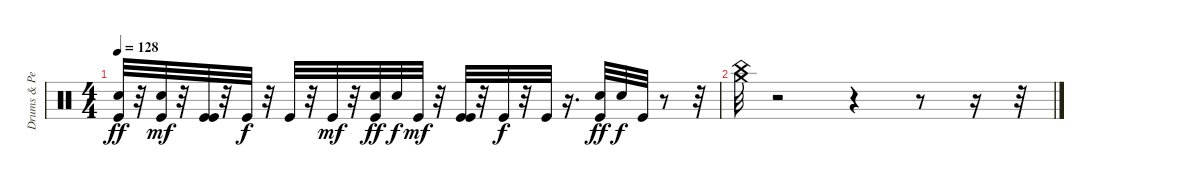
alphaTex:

\track ("Drums & Percussion" "Drums & Pe") {instrument percussion}
\staff {score}
\articulation defaults
\ts (4 4)
\tempo 128
\clef neutral
\ks c
("Electric Snare (hit)" "Kick (hit)").32{dy ff} r.32 ("Electric Snare (hit)" "Kick (hit)").32{dy mf} r.32 ("Kick (hit)" "Kick (hit)").32 r.32 "Kick (hit)".32{dy f} r.32 "Kick (hit)".32 r.32 "Kick (hit)".32{dy mf} r.32 ("Electric Snare (hit)" "Kick (hit)").32{dy ff} "Electric Snare (hit)".32{dy f} "Kick (hit)".32{dy mf} r.32 ("Kick (hit)" "Kick (hit)").32 r.32 "Kick (hit)".32{dy f} r.32 "Kick (hit)".32 r.16{d} ("Electric Snare (hit)" "Kick (hit)").32{dy ff} "Electric Snare (hit)".32{dy f} "Kick (hit)".32 r.8 r.32 |
("Crash medium (hit)" "China (hit)").32 r.2 r.4 r.8 r.16 r.32
